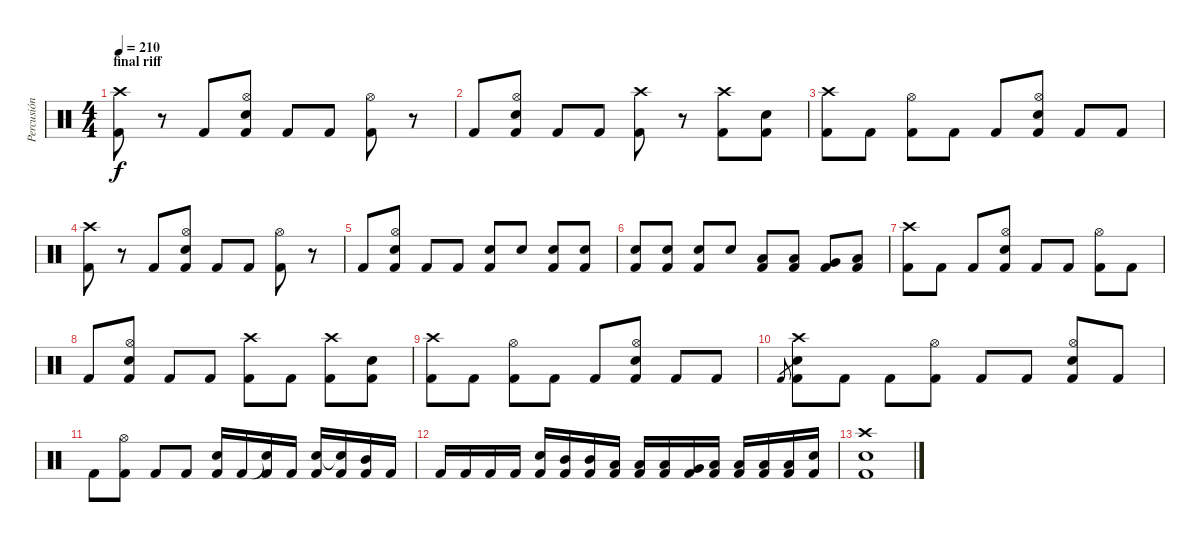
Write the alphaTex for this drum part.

\track ("Percusión" "Percusión") {instrument percussion}
\staff {score}
\articulation defaults
\ts (4 4)
\section ("" "final riff")
\tempo 210
\clef neutral
\ks c
("Crash high (hit)" "Kick (hit) 2").8{dy f} r.8 "Kick (hit) 2".8 ("Hi-Hat (open)" "Snare (hit) 2" "Kick (hit) 2").8 "Kick (hit) 2".8 "Kick (hit) 2".8 ("Hi-Hat (open)" "Kick (hit) 2").8 r.8 |
"Kick (hit) 2".8 ("Hi-Hat (open)" "Snare (hit) 2" "Kick (hit) 2").8 "Kick (hit) 2".8 "Kick (hit) 2".8 ("Crash high (hit)" "Kick (hit) 2").8 r.8 ("Crash high (hit)" "Kick (hit) 2").8 ("Snare (hit) 2" "Kick (hit) 2").8 |
("Crash high (hit)" "Kick (hit) 2").8 "Kick (hit) 2".8 ("Hi-Hat (open)" "Kick (hit) 2").8 "Kick (hit) 2".8 "Kick (hit) 2".8 ("Hi-Hat (open)" "Snare (hit) 2" "Kick (hit) 2").8 "Kick (hit) 2".8 "Kick (hit) 2".8 |
("Crash high (hit)" "Kick (hit) 2").8 r.8 "Kick (hit) 2".8 ("Hi-Hat (open)" "Snare (hit) 2" "Kick (hit) 2").8 "Kick (hit) 2".8 "Kick (hit) 2".8 ("Hi-Hat (open)" "Kick (hit) 2").8 r.8 |
"Kick (hit) 2".8 ("Hi-Hat (open)" "Snare (hit) 2" "Kick (hit) 2").8 "Kick (hit) 2".8 "Kick (hit) 2".8 ("Electric Snare (hit)" "Kick (hit) 2").8 "Electric Snare (hit)".8 ("Electric Snare (hit)" "Kick (hit) 2").8 ("Electric Snare (hit)" "Kick (hit) 2").8 |
("Electric Snare (hit)" "Kick (hit) 2").8 ("Electric Snare (hit)" "Kick (hit) 2").8 ("Electric Snare (hit)" "Kick (hit) 2").8 "Snare (hit) 2".8 ("Low Tom (hit)" "Kick (hit) 2").8 ("Low Tom (hit)" "Kick (hit) 2").8 ("Very Low Tom (hit)" "Kick (hit) 2").8 ("Low Floor Tom (hit)" "Kick (hit) 2").8 |
("Crash high (hit)" "Kick (hit) 2").8 "Kick (hit) 2".8 "Kick (hit) 2".8 ("Hi-Hat (open)" "Snare (hit) 2" "Kick (hit) 2").8 "Kick (hit) 2".8 "Kick (hit) 2".8 ("Hi-Hat (open)" "Kick (hit) 2").8 "Kick (hit) 2".8 |
"Kick (hit) 2".8 ("Hi-Hat (open)" "Snare (hit) 2" "Kick (hit) 2").8 "Kick (hit) 2".8 "Kick (hit) 2".8 ("Crash high (hit)" "Kick (hit) 2").8 "Kick (hit) 2".8 ("Crash high (hit)" "Kick (hit) 2").8 ("Snare (hit) 2" "Kick (hit) 2").8 |
("Crash high (hit)" "Kick (hit) 2").8 "Kick (hit) 2".8 ("Hi-Hat (open)" "Kick (hit) 2").8 "Kick (hit) 2".8 "Kick (hit) 2".8 ("Hi-Hat (open)" "Snare (hit) 2" "Kick (hit) 2").8 "Kick (hit) 2".8 "Kick (hit) 2".8 |
"Kick (hit) 2".8{gr} ("Crash high (hit)" "Snare (hit) 2" "Kick (hit) 2").8 "Kick (hit) 2".8 "Kick (hit) 2".8 ("Hi-Hat (open)" "Kick (hit) 2").8 "Kick (hit) 2".8 "Kick (hit) 2".8 ("Hi-Hat (open)" "Snare (hit) 2" "Kick (hit) 2").8 "Kick (hit) 2".8 |
"Kick (hit) 2".8 ("Hi-Hat (open)" "Kick (hit) 2").8 "Kick (hit) 2".8 "Kick (hit) 2".8 ("Snare (hit) 2" "Kick (hit) 2").16 "Kick (hit) 2".16 ("Snare (hit) 2"{t} "Kick (hit) 2").16 "Kick (hit) 2".16 ("Snare (hit) 2" "Kick (hit) 2").16 ("Snare (hit)"{t} "Kick (hit) 2").16 ("Mid Tom (hit)" "Kick (hit) 2").16 "Kick (hit) 2".16 |
"Kick (hit) 2".16 "Kick (hit) 2".16 "Kick (hit) 2".16 "Kick (hit) 2".16 ("Snare (hit) 2" "Kick (hit) 2").16 ("Mid Tom (hit)" "Kick (hit) 2").16 ("Mid Tom (hit)" "Kick (hit) 2").16 ("Low Tom (hit)" "Kick (hit) 2").16 ("Low Tom (hit)" "Kick (hit) 2").16 ("Low Tom (hit)" "Kick (hit) 2").16 ("Very Low Tom (hit)" "Kick (hit) 2").16 ("Low Tom (hit)" "Kick (hit) 2").16 ("Low Floor Tom (hit)" "Kick (hit) 2").16 ("Low Floor Tom (hit)" "Kick (hit) 2").16 ("Low Floor Tom (hit)" "Kick (hit) 2").16 ("Electric Snare (hit)" "Kick (hit) 2").16 |
("Crash high (hit)" "Electric Snare (hit)" "Kick (hit) 2").1
